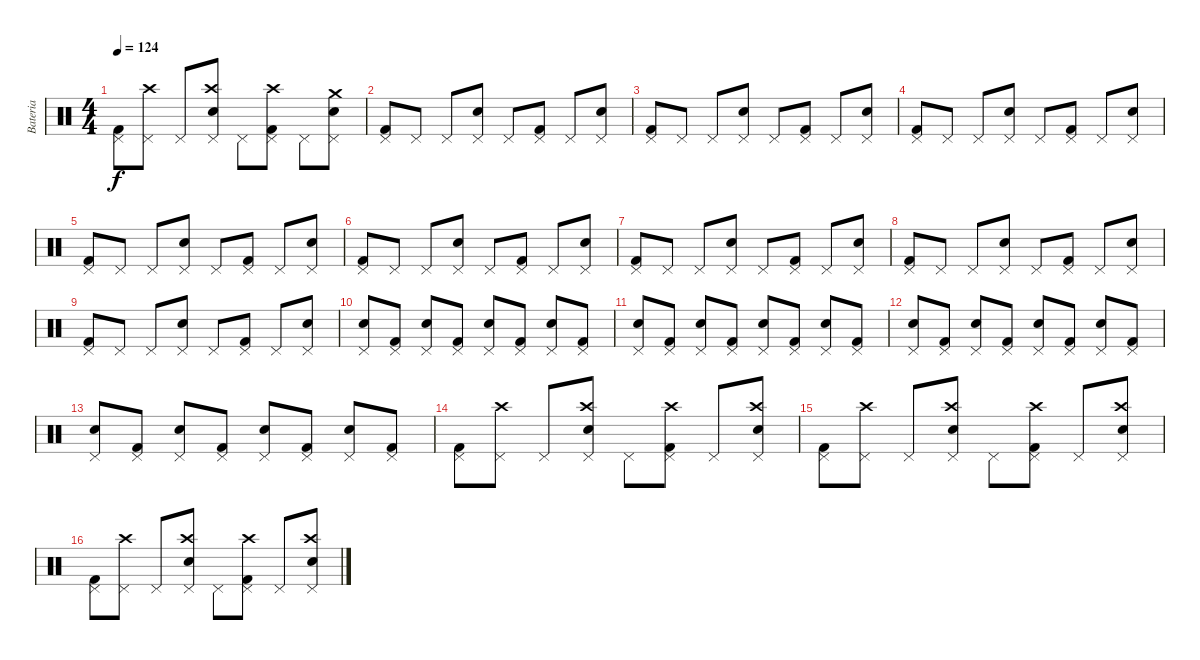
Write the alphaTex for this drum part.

\track ("Bateria" "Bateria") {instrument percussion}
\staff {score}
\articulation defaults
\ts (4 4)
\tempo 124
\clef neutral
\ks c
("Pedal Hi-Hat (hit)" "Kick (hit) 2").8{dy f} ("Pedal Hi-Hat (hit)" "Crash high (hit)").8 "Pedal Hi-Hat (hit)".8 ("Pedal Hi-Hat (hit)" "Electric Snare (hit)" "Crash high (hit)").8 "Pedal Hi-Hat (hit)".8 ("Pedal Hi-Hat (hit)" "Kick (hit) 2" "Crash high (hit)").8 "Pedal Hi-Hat (hit)".8 ("Pedal Hi-Hat (hit)" "Electric Snare (hit)" "Crash medium (hit)").8 |
("Pedal Hi-Hat (hit)" "Kick (hit) 2").8 "Pedal Hi-Hat (hit)".8 "Pedal Hi-Hat (hit)".8 ("Pedal Hi-Hat (hit)" "Electric Snare (hit)").8 "Pedal Hi-Hat (hit)".8 ("Pedal Hi-Hat (hit)" "Kick (hit) 2").8 "Pedal Hi-Hat (hit)".8 ("Pedal Hi-Hat (hit)" "Electric Snare (hit)").8 |
("Pedal Hi-Hat (hit)" "Kick (hit) 2").8 "Pedal Hi-Hat (hit)".8 "Pedal Hi-Hat (hit)".8 ("Pedal Hi-Hat (hit)" "Electric Snare (hit)").8 "Pedal Hi-Hat (hit)".8 ("Pedal Hi-Hat (hit)" "Kick (hit) 2").8 "Pedal Hi-Hat (hit)".8 ("Pedal Hi-Hat (hit)" "Electric Snare (hit)").8 |
("Pedal Hi-Hat (hit)" "Kick (hit) 2").8 "Pedal Hi-Hat (hit)".8 "Pedal Hi-Hat (hit)".8 ("Pedal Hi-Hat (hit)" "Electric Snare (hit)").8 "Pedal Hi-Hat (hit)".8 ("Pedal Hi-Hat (hit)" "Kick (hit) 2").8 "Pedal Hi-Hat (hit)".8 ("Pedal Hi-Hat (hit)" "Electric Snare (hit)").8 |
("Pedal Hi-Hat (hit)" "Kick (hit) 2").8 "Pedal Hi-Hat (hit)".8 "Pedal Hi-Hat (hit)".8 ("Pedal Hi-Hat (hit)" "Electric Snare (hit)").8 "Pedal Hi-Hat (hit)".8 ("Pedal Hi-Hat (hit)" "Kick (hit) 2").8 "Pedal Hi-Hat (hit)".8 ("Pedal Hi-Hat (hit)" "Electric Snare (hit)").8 |
("Pedal Hi-Hat (hit)" "Kick (hit) 2").8 "Pedal Hi-Hat (hit)".8 "Pedal Hi-Hat (hit)".8 ("Pedal Hi-Hat (hit)" "Electric Snare (hit)").8 "Pedal Hi-Hat (hit)".8 ("Pedal Hi-Hat (hit)" "Kick (hit) 2").8 "Pedal Hi-Hat (hit)".8 ("Pedal Hi-Hat (hit)" "Electric Snare (hit)").8 |
("Pedal Hi-Hat (hit)" "Kick (hit) 2").8 "Pedal Hi-Hat (hit)".8 "Pedal Hi-Hat (hit)".8 ("Pedal Hi-Hat (hit)" "Electric Snare (hit)").8 "Pedal Hi-Hat (hit)".8 ("Pedal Hi-Hat (hit)" "Kick (hit) 2").8 "Pedal Hi-Hat (hit)".8 ("Pedal Hi-Hat (hit)" "Electric Snare (hit)").8 |
("Pedal Hi-Hat (hit)" "Kick (hit) 2").8 "Pedal Hi-Hat (hit)".8 "Pedal Hi-Hat (hit)".8 ("Pedal Hi-Hat (hit)" "Electric Snare (hit)").8 "Pedal Hi-Hat (hit)".8 ("Pedal Hi-Hat (hit)" "Kick (hit) 2").8 "Pedal Hi-Hat (hit)".8 ("Pedal Hi-Hat (hit)" "Electric Snare (hit)").8 |
("Pedal Hi-Hat (hit)" "Kick (hit) 2").8 "Pedal Hi-Hat (hit)".8 "Pedal Hi-Hat (hit)".8 ("Pedal Hi-Hat (hit)" "Electric Snare (hit)").8 "Pedal Hi-Hat (hit)".8 ("Pedal Hi-Hat (hit)" "Kick (hit) 2").8 "Pedal Hi-Hat (hit)".8 ("Pedal Hi-Hat (hit)" "Electric Snare (hit)").8 |
("Pedal Hi-Hat (hit)" "Electric Snare (hit)").8 ("Pedal Hi-Hat (hit)" "Kick (hit) 2").8 ("Pedal Hi-Hat (hit)" "Electric Snare (hit)").8 ("Pedal Hi-Hat (hit)" "Kick (hit) 2").8 ("Pedal Hi-Hat (hit)" "Electric Snare (hit)").8 ("Pedal Hi-Hat (hit)" "Kick (hit) 2").8 ("Pedal Hi-Hat (hit)" "Electric Snare (hit)").8 ("Pedal Hi-Hat (hit)" "Kick (hit) 2").8 |
("Pedal Hi-Hat (hit)" "Electric Snare (hit)").8 ("Pedal Hi-Hat (hit)" "Kick (hit) 2").8 ("Pedal Hi-Hat (hit)" "Electric Snare (hit)").8 ("Pedal Hi-Hat (hit)" "Kick (hit) 2").8 ("Pedal Hi-Hat (hit)" "Electric Snare (hit)").8 ("Pedal Hi-Hat (hit)" "Kick (hit) 2").8 ("Pedal Hi-Hat (hit)" "Electric Snare (hit)").8 ("Pedal Hi-Hat (hit)" "Kick (hit) 2").8 |
("Pedal Hi-Hat (hit)" "Electric Snare (hit)").8 ("Pedal Hi-Hat (hit)" "Kick (hit) 2").8 ("Pedal Hi-Hat (hit)" "Electric Snare (hit)").8 ("Pedal Hi-Hat (hit)" "Kick (hit) 2").8 ("Pedal Hi-Hat (hit)" "Electric Snare (hit)").8 ("Pedal Hi-Hat (hit)" "Kick (hit) 2").8 ("Pedal Hi-Hat (hit)" "Electric Snare (hit)").8 ("Pedal Hi-Hat (hit)" "Kick (hit) 2").8 |
("Pedal Hi-Hat (hit)" "Electric Snare (hit)").8 ("Pedal Hi-Hat (hit)" "Kick (hit) 2").8 ("Pedal Hi-Hat (hit)" "Electric Snare (hit)").8 ("Pedal Hi-Hat (hit)" "Kick (hit) 2").8 ("Pedal Hi-Hat (hit)" "Electric Snare (hit)").8 ("Pedal Hi-Hat (hit)" "Kick (hit) 2").8 ("Pedal Hi-Hat (hit)" "Electric Snare (hit)").8 ("Pedal Hi-Hat (hit)" "Kick (hit) 2").8 |
("Pedal Hi-Hat (hit)" "Kick (hit) 2").8 ("Pedal Hi-Hat (hit)" "Crash high (hit)").8 "Pedal Hi-Hat (hit)".8 ("Pedal Hi-Hat (hit)" "Electric Snare (hit)" "Crash high (hit)").8 "Pedal Hi-Hat (hit)".8 ("Pedal Hi-Hat (hit)" "Kick (hit) 2" "Crash high (hit)").8 "Pedal Hi-Hat (hit)".8 ("Pedal Hi-Hat (hit)" "Electric Snare (hit)" "Crash high (hit)").8 |
("Pedal Hi-Hat (hit)" "Kick (hit) 2").8 ("Pedal Hi-Hat (hit)" "Crash high (hit)").8 "Pedal Hi-Hat (hit)".8 ("Pedal Hi-Hat (hit)" "Electric Snare (hit)" "Crash high (hit)").8 "Pedal Hi-Hat (hit)".8 ("Pedal Hi-Hat (hit)" "Kick (hit) 2" "Crash high (hit)").8 "Pedal Hi-Hat (hit)".8 ("Pedal Hi-Hat (hit)" "Electric Snare (hit)" "Crash high (hit)").8 |
("Pedal Hi-Hat (hit)" "Kick (hit) 2").8 ("Pedal Hi-Hat (hit)" "Crash high (hit)").8 "Pedal Hi-Hat (hit)".8 ("Pedal Hi-Hat (hit)" "Electric Snare (hit)" "Crash high (hit)").8 "Pedal Hi-Hat (hit)".8 ("Pedal Hi-Hat (hit)" "Kick (hit) 2" "Crash high (hit)").8 "Pedal Hi-Hat (hit)".8 ("Pedal Hi-Hat (hit)" "Electric Snare (hit)" "Crash high (hit)").8
